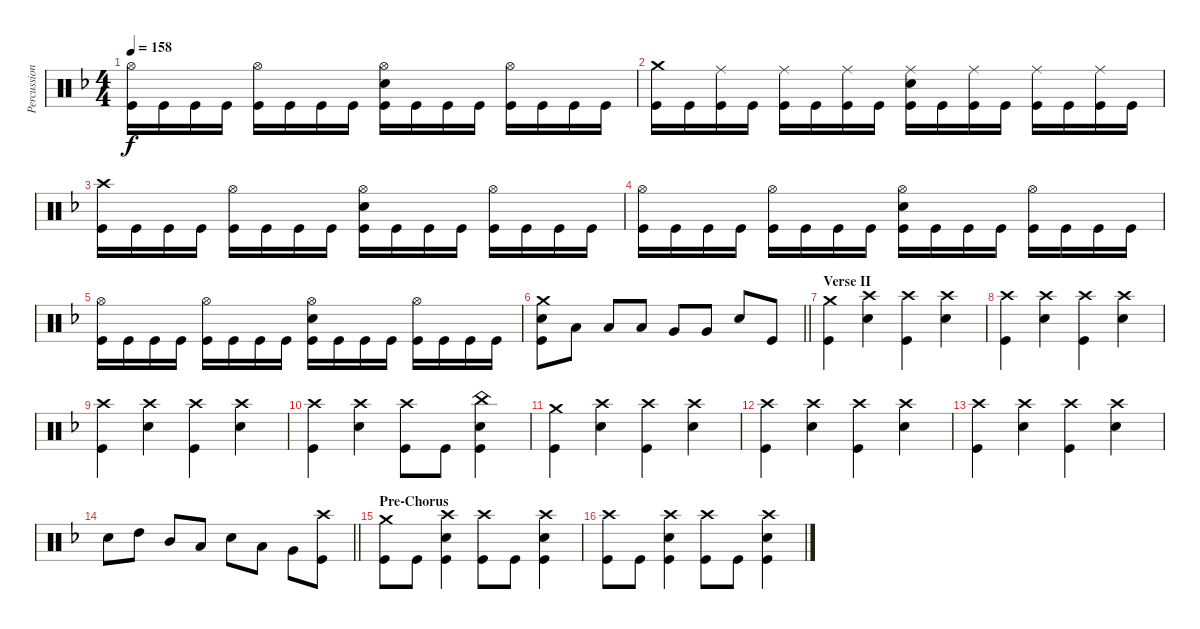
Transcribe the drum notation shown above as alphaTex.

\track ("Percussion" "Percussion") {instrument percussion}
\staff {score}
\articulation defaults
\ts (4 4)
\tempo 158
\clef neutral
\ks f
("Hi-Hat (open)" "Kick (hit)").16{dy f} "Kick (hit)".16 "Kick (hit)".16 "Kick (hit)".16 ("Hi-Hat (open)" "Kick (hit)").16 "Kick (hit)".16 "Kick (hit)".16 "Kick (hit)".16 ("Hi-Hat (open)" "Electric Snare (hit)" "Kick (hit)").16 "Kick (hit)".16 "Kick (hit)".16 "Kick (hit)".16 ("Hi-Hat (open)" "Kick (hit)").16 "Kick (hit)".16 "Kick (hit)".16 "Kick (hit)".16 |
("Crash medium (hit)" "Kick (hit)").16 "Kick (hit)".16 ("Ride (middle)" "Kick (hit)").16 "Kick (hit)".16 ("Ride (middle)" "Kick (hit)").16 "Kick (hit)".16 ("Ride (middle)" "Kick (hit)").16 "Kick (hit)".16 ("Ride (middle)" "Electric Snare (hit)" "Kick (hit)").16 "Kick (hit)".16 ("Ride (middle)" "Kick (hit)").16 "Kick (hit)".16 ("Ride (middle)" "Kick (hit)").16 "Kick (hit)".16 ("Ride (middle)" "Kick (hit)").16 "Kick (hit)".16 |
("Crash high (hit)" "Kick (hit)").16 "Kick (hit)".16 "Kick (hit)".16 "Kick (hit)".16 ("Hi-Hat (open)" "Kick (hit)").16 "Kick (hit)".16 "Kick (hit)".16 "Kick (hit)".16 ("Hi-Hat (open)" "Electric Snare (hit)" "Kick (hit)").16 "Kick (hit)".16 "Kick (hit)".16 "Kick (hit)".16 ("Hi-Hat (open)" "Kick (hit)").16 "Kick (hit)".16 "Kick (hit)".16 "Kick (hit)".16 |
("Hi-Hat (open)" "Kick (hit)").16 "Kick (hit)".16 "Kick (hit)".16 "Kick (hit)".16 ("Hi-Hat (open)" "Kick (hit)").16 "Kick (hit)".16 "Kick (hit)".16 "Kick (hit)".16 ("Hi-Hat (open)" "Electric Snare (hit)" "Kick (hit)").16 "Kick (hit)".16 "Kick (hit)".16 "Kick (hit)".16 ("Hi-Hat (open)" "Kick (hit)").16 "Kick (hit)".16 "Kick (hit)".16 "Kick (hit)".16 |
("Hi-Hat (open)" "Kick (hit)").16 "Kick (hit)".16 "Kick (hit)".16 "Kick (hit)".16 ("Hi-Hat (open)" "Kick (hit)").16 "Kick (hit)".16 "Kick (hit)".16 "Kick (hit)".16 ("Hi-Hat (open)" "Electric Snare (hit)" "Kick (hit)").16 "Kick (hit)".16 "Kick (hit)".16 "Kick (hit)".16 ("Hi-Hat (open)" "Kick (hit)").16 "Kick (hit)".16 "Kick (hit)".16 "Kick (hit)".16 |
\barLineRight lightlight
("Crash medium (hit)" "Electric Snare (hit)" "Kick (hit)").8 "Low Tom (hit)".8 "Low Tom (hit)".8 "Low Tom (hit)".8 "Very Low Tom (hit)".8 "Very Low Tom (hit)".8 "Electric Snare (hit)".8 "Kick (hit)".8 |
\section ("" "Verse II")
("Crash medium (hit)" "Kick (hit)").4 ("Crash high (hit)" "Electric Snare (hit)").4 ("Crash high (hit)" "Kick (hit)").4 ("Crash high (hit)" "Electric Snare (hit)").4 |
("Crash high (hit)" "Kick (hit)").4 ("Crash high (hit)" "Electric Snare (hit)").4 ("Crash high (hit)" "Kick (hit)").4 ("Crash high (hit)" "Electric Snare (hit)").4 |
("Crash high (hit)" "Kick (hit)").4 ("Crash high (hit)" "Electric Snare (hit)").4 ("Crash high (hit)" "Kick (hit)").4 ("Crash high (hit)" "Electric Snare (hit)").4 |
("Crash high (hit)" "Kick (hit)").4 ("Crash high (hit)" "Electric Snare (hit)").4 ("Crash high (hit)" "Kick (hit)").8 "Kick (hit)".8 ("China (hit)" "Electric Snare (hit)" "Kick (hit)").4 |
("Crash medium (hit)" "Kick (hit)").4 ("Crash high (hit)" "Electric Snare (hit)").4 ("Crash high (hit)" "Kick (hit)").4 ("Crash high (hit)" "Electric Snare (hit)").4 |
("Crash high (hit)" "Kick (hit)").4 ("Crash high (hit)" "Electric Snare (hit)").4 ("Crash high (hit)" "Kick (hit)").4 ("Crash high (hit)" "Electric Snare (hit)").4 |
("Crash high (hit)" "Kick (hit)").4 ("Crash high (hit)" "Electric Snare (hit)").4 ("Crash high (hit)" "Kick (hit)").4 ("Crash high (hit)" "Electric Snare (hit)").4 |
\barLineRight lightlight "Electric Snare (hit)".8 "High Tom (hit)".8 "Mid Tom (hit)".8 "Low Tom (hit)".8 "Electric Snare (hit)".8 "Low Tom (hit)".8 "Very Low Tom (hit)".8
("Crash high (hit)" "Kick (hit)").8 |
\section ("" "Pre-Chorus")
("Crash medium (hit)" "Kick (hit)").8 "Kick (hit)".8 ("Crash high (hit)" "Electric Snare (hit)" "Kick (hit)").4 ("Crash high (hit)" "Kick (hit)").8 "Kick (hit)".8 ("Crash high (hit)" "Electric Snare (hit)" "Kick (hit)").4 |
("Crash high (hit)" "Kick (hit)").8 "Kick (hit)".8 ("Crash high (hit)" "Electric Snare (hit)" "Kick (hit)").4 ("Crash high (hit)" "Kick (hit)").8 "Kick (hit)".8 ("Crash high (hit)" "Electric Snare (hit)" "Kick (hit)").4
